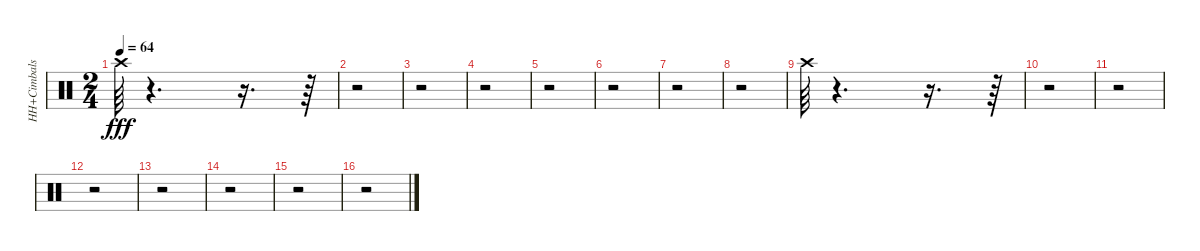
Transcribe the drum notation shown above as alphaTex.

\track ("HH+Cimbals" "HH+Cimbals") {instrument percussion}
\staff {score}
\articulation defaults
\ts (2 4)
\tempo 64
\clef neutral
\ks c "Crash high (hit)".64{dy fff}
r.4{d} r.16{d} r.64 |
r.2 |
r.2 |
r.2 |
r.2 |
r.2 |
r.2 |
r.2 |
"Crash high (hit)".64 r.4{d} r.16{d} r.64 |
r.2 |
r.2 |
r.2 |
r.2 |
r.2 |
r.2 |
r.2
